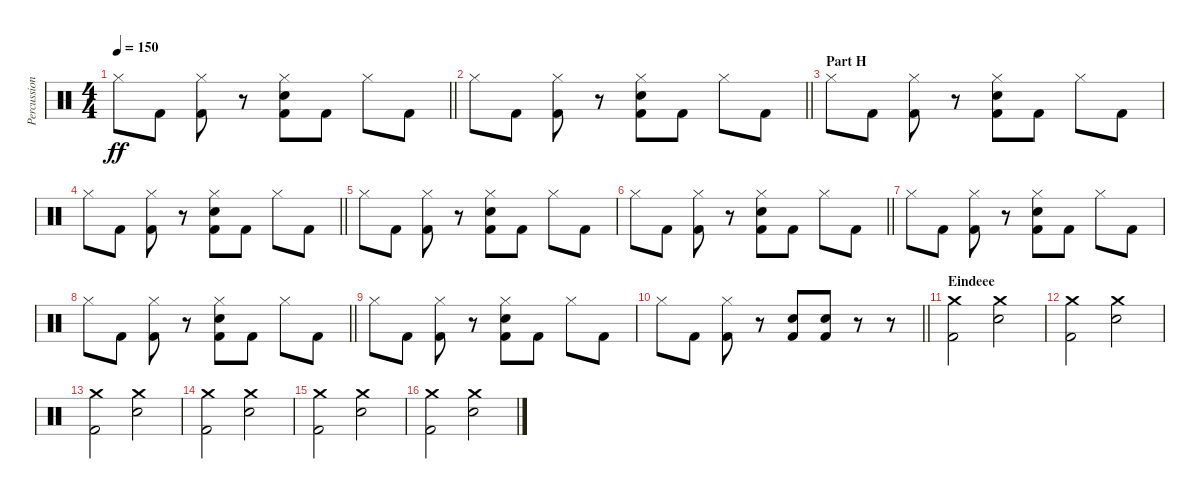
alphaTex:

\track ("Percussion" "Percussion") {instrument percussion}
\staff {score}
\articulation defaults
\ts (4 4)
\tempo 150
\clef neutral
\barLineRight lightlight
\ks c "Hi-Hat (closed)".8{dy ff} "Kick (hit) 2".8
("Hi-Hat (closed)" "Kick (hit) 2").8 r.8 ("Hi-Hat (closed)" "Electric Snare (hit)" "Kick (hit) 2").8 "Kick (hit) 2".8 "Hi-Hat (closed)".8 "Kick (hit) 2".8 |
\barLineRight lightlight "Hi-Hat (closed)".8 "Kick (hit) 2".8
("Hi-Hat (closed)" "Kick (hit) 2").8 r.8 ("Hi-Hat (closed)" "Electric Snare (hit)" "Kick (hit) 2").8 "Kick (hit) 2".8 "Hi-Hat (closed)".8 "Kick (hit) 2".8 |
\section ("" "Part H")
"Hi-Hat (closed)".8 "Kick (hit) 2".8 ("Hi-Hat (closed)" "Kick (hit) 2").8 r.8 ("Hi-Hat (closed)" "Electric Snare (hit)" "Kick (hit) 2").8 "Kick (hit) 2".8 "Hi-Hat (closed)".8 "Kick (hit) 2".8 |
\barLineRight lightlight "Hi-Hat (closed)".8 "Kick (hit) 2".8
("Hi-Hat (closed)" "Kick (hit) 2").8 r.8 ("Hi-Hat (closed)" "Electric Snare (hit)" "Kick (hit) 2").8 "Kick (hit) 2".8 "Hi-Hat (closed)".8 "Kick (hit) 2".8 |
"Hi-Hat (closed)".8 "Kick (hit) 2".8 ("Hi-Hat (closed)" "Kick (hit) 2").8 r.8 ("Hi-Hat (closed)" "Electric Snare (hit)" "Kick (hit) 2").8 "Kick (hit) 2".8 "Hi-Hat (closed)".8 "Kick (hit) 2".8 |
\barLineRight lightlight "Hi-Hat (closed)".8 "Kick (hit) 2".8
("Hi-Hat (closed)" "Kick (hit) 2").8 r.8 ("Hi-Hat (closed)" "Electric Snare (hit)" "Kick (hit) 2").8 "Kick (hit) 2".8 "Hi-Hat (closed)".8 "Kick (hit) 2".8 |
"Hi-Hat (closed)".8 "Kick (hit) 2".8 ("Hi-Hat (closed)" "Kick (hit) 2").8 r.8 ("Hi-Hat (closed)" "Electric Snare (hit)" "Kick (hit) 2").8 "Kick (hit) 2".8 "Hi-Hat (closed)".8 "Kick (hit) 2".8 |
\barLineRight lightlight "Hi-Hat (closed)".8 "Kick (hit) 2".8
("Hi-Hat (closed)" "Kick (hit) 2").8 r.8 ("Hi-Hat (closed)" "Electric Snare (hit)" "Kick (hit) 2").8 "Kick (hit) 2".8 "Hi-Hat (closed)".8 "Kick (hit) 2".8 |
"Hi-Hat (closed)".8 "Kick (hit) 2".8 ("Hi-Hat (closed)" "Kick (hit) 2").8 r.8 ("Hi-Hat (closed)" "Electric Snare (hit)" "Kick (hit) 2").8 "Kick (hit) 2".8 "Hi-Hat (closed)".8 "Kick (hit) 2".8 |
\barLineRight lightlight "Hi-Hat (closed)".8 "Kick (hit) 2".8
("Hi-Hat (closed)" "Kick (hit) 2").8 r.8 ("Electric Snare (hit)" "Kick (hit) 2").8 ("Electric Snare (hit)" "Kick (hit) 2").8 r.8 r.8 |
\section ("" "Eindeee")
("Crash medium (hit)" "Kick (hit) 2").2 ("Crash medium (hit)" "Electric Snare (hit)").2 |
("Crash medium (hit)" "Kick (hit) 2").2 ("Crash medium (hit)" "Electric Snare (hit)").2 |
("Crash medium (hit)" "Kick (hit) 2").2 ("Crash medium (hit)" "Electric Snare (hit)").2 |
("Crash medium (hit)" "Kick (hit) 2").2 ("Crash medium (hit)" "Electric Snare (hit)").2 |
("Crash medium (hit)" "Kick (hit) 2").2 ("Crash medium (hit)" "Electric Snare (hit)").2 |
("Crash medium (hit)" "Kick (hit) 2").2 ("Crash medium (hit)" "Electric Snare (hit)").2
